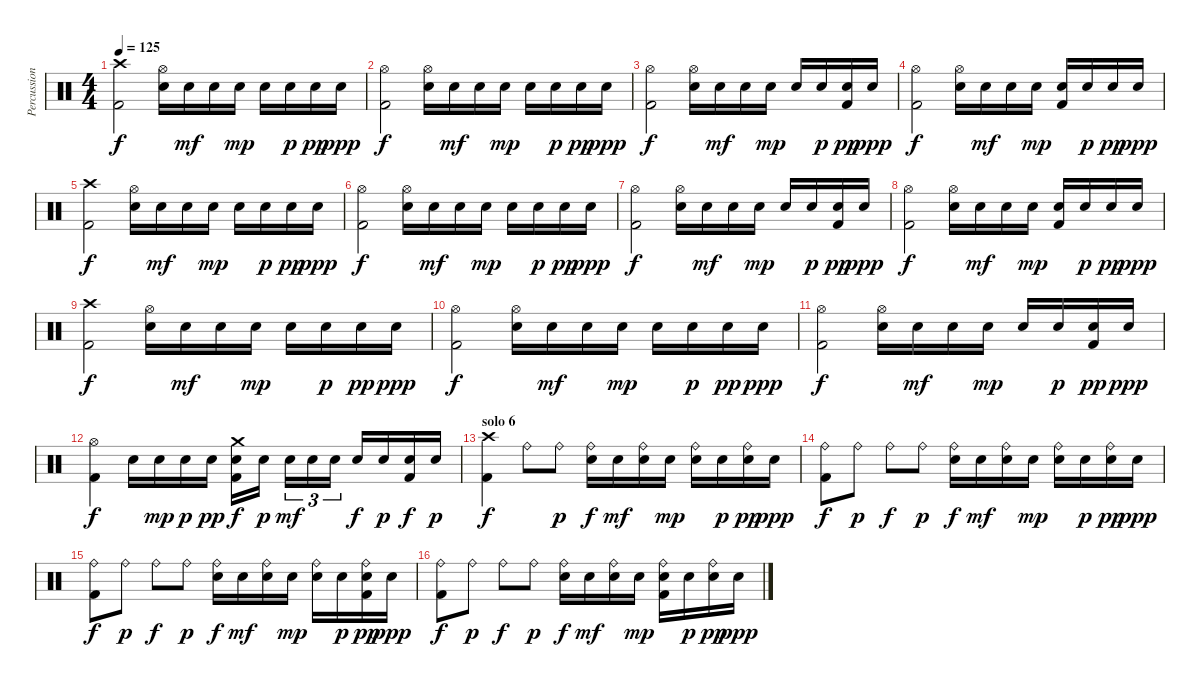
\track ("Percussion" "Percussion") {instrument percussion}
\staff {score}
\articulation defaults
\ts (4 4)
\tempo 125
\clef neutral
\ks c
("Crash high (hit)" "Kick (hit) 2").2{dy f} ("Hi-Hat (open)" "Electric Snare (hit)").16 "Electric Snare (hit)".16{dy mf} "Electric Snare (hit)".16 "Electric Snare (hit)".16{dy mp} "Electric Snare (hit)".16 "Electric Snare (hit)".16{dy p} "Electric Snare (hit)".16{dy pp} "Electric Snare (hit)".16{dy ppp} |
("Hi-Hat (open)" "Kick (hit) 2").2{dy f} ("Hi-Hat (open)" "Electric Snare (hit)").16 "Electric Snare (hit)".16{dy mf} "Electric Snare (hit)".16 "Electric Snare (hit)".16{dy mp} "Electric Snare (hit)".16 "Electric Snare (hit)".16{dy p} "Electric Snare (hit)".16{dy pp} "Electric Snare (hit)".16{dy ppp} |
("Hi-Hat (open)" "Kick (hit) 2").2{dy f} ("Hi-Hat (open)" "Electric Snare (hit)").16 "Electric Snare (hit)".16{dy mf} "Electric Snare (hit)".16 "Electric Snare (hit)".16{dy mp} "Electric Snare (hit)".16 "Electric Snare (hit)".16{dy p} ("Electric Snare (hit)" "Kick (hit) 2").16{dy pp} "Electric Snare (hit)".16{dy ppp} |
("Hi-Hat (open)" "Kick (hit) 2").2{dy f} ("Hi-Hat (open)" "Electric Snare (hit)").16 "Electric Snare (hit)".16{dy mf} "Electric Snare (hit)".16 "Electric Snare (hit)".16{dy mp} ("Electric Snare (hit)" "Kick (hit) 2").16 "Electric Snare (hit)".16{dy p} "Electric Snare (hit)".16{dy pp} "Electric Snare (hit)".16{dy ppp} |
("Crash high (hit)" "Kick (hit) 2").2{dy f} ("Hi-Hat (open)" "Electric Snare (hit)").16 "Electric Snare (hit)".16{dy mf} "Electric Snare (hit)".16 "Electric Snare (hit)".16{dy mp} "Electric Snare (hit)".16 "Electric Snare (hit)".16{dy p} "Electric Snare (hit)".16{dy pp} "Electric Snare (hit)".16{dy ppp} |
("Hi-Hat (open)" "Kick (hit) 2").2{dy f} ("Hi-Hat (open)" "Electric Snare (hit)").16 "Electric Snare (hit)".16{dy mf} "Electric Snare (hit)".16 "Electric Snare (hit)".16{dy mp} "Electric Snare (hit)".16 "Electric Snare (hit)".16{dy p} "Electric Snare (hit)".16{dy pp} "Electric Snare (hit)".16{dy ppp} |
("Hi-Hat (open)" "Kick (hit) 2").2{dy f} ("Hi-Hat (open)" "Electric Snare (hit)").16 "Electric Snare (hit)".16{dy mf} "Electric Snare (hit)".16 "Electric Snare (hit)".16{dy mp} "Electric Snare (hit)".16 "Electric Snare (hit)".16{dy p} ("Electric Snare (hit)" "Kick (hit) 2").16{dy pp} "Electric Snare (hit)".16{dy ppp} |
("Hi-Hat (open)" "Kick (hit) 2").2{dy f} ("Hi-Hat (open)" "Electric Snare (hit)").16 "Electric Snare (hit)".16{dy mf} "Electric Snare (hit)".16 "Electric Snare (hit)".16{dy mp} ("Electric Snare (hit)" "Kick (hit) 2").16 "Electric Snare (hit)".16{dy p} "Electric Snare (hit)".16{dy pp} "Electric Snare (hit)".16{dy ppp} |
("Crash high (hit)" "Kick (hit) 2").2{dy f} ("Hi-Hat (open)" "Electric Snare (hit)").16 "Electric Snare (hit)".16{dy mf} "Electric Snare (hit)".16 "Electric Snare (hit)".16{dy mp} "Electric Snare (hit)".16 "Electric Snare (hit)".16{dy p} "Electric Snare (hit)".16{dy pp} "Electric Snare (hit)".16{dy ppp} |
("Hi-Hat (open)" "Kick (hit) 2").2{dy f} ("Hi-Hat (open)" "Electric Snare (hit)").16 "Electric Snare (hit)".16{dy mf} "Electric Snare (hit)".16 "Electric Snare (hit)".16{dy mp} "Electric Snare (hit)".16 "Electric Snare (hit)".16{dy p} "Electric Snare (hit)".16{dy pp} "Electric Snare (hit)".16{dy ppp} |
("Hi-Hat (open)" "Kick (hit) 2").2{dy f} ("Hi-Hat (open)" "Electric Snare (hit)").16 "Electric Snare (hit)".16{dy mf} "Electric Snare (hit)".16 "Electric Snare (hit)".16{dy mp} "Electric Snare (hit)".16 "Electric Snare (hit)".16{dy p} ("Electric Snare (hit)" "Kick (hit) 2").16{dy pp} "Electric Snare (hit)".16{dy ppp} |
("Hi-Hat (open)" "Kick (hit) 2").4{dy f} "Electric Snare (hit)".16 "Electric Snare (hit)".16{dy mp} "Electric Snare (hit)".16{dy p} "Electric Snare (hit)".16{dy pp} ("Crash medium (hit)" "Electric Snare (hit)" "Kick (hit) 2").16{dy f} "Electric Snare (hit)".16{dy p} "Electric Snare (hit)".16{tu (3 2) dy mf} "Electric Snare (hit)".16{tu (3 2)} "Electric Snare (hit)".16{tu (3 2)} "Electric Snare (hit)".16{dy f} "Electric Snare (hit)".16{dy p} ("Electric Snare (hit)" "Kick (hit) 2").16{dy f} "Electric Snare (hit)".16{dy p} |
\section ("" "solo 6")
("Crash high (hit)" "Kick (hit) 2").4{dy f} "Ride (bell)".8 "Ride (bell)".8{dy p} ("Ride (bell)" "Electric Snare (hit)").16{dy f} "Electric Snare (hit)".16{dy mf} ("Ride (bell)" "Electric Snare (hit)").16 "Electric Snare (hit)".16{dy mp} ("Ride (bell)" "Electric Snare (hit)").16 "Electric Snare (hit)".16{dy p} ("Ride (bell)" "Electric Snare (hit)").16{dy pp} "Electric Snare (hit)".16{dy ppp} |
("Ride (bell)" "Kick (hit) 2").8{dy f} "Ride (bell)".8{dy p} "Ride (bell)".8{dy f} "Ride (bell)".8{dy p} ("Ride (bell)" "Electric Snare (hit)").16{dy f} "Electric Snare (hit)".16{dy mf} ("Ride (bell)" "Electric Snare (hit)").16 "Electric Snare (hit)".16{dy mp} ("Ride (bell)" "Electric Snare (hit)").16 "Electric Snare (hit)".16{dy p} ("Ride (bell)" "Electric Snare (hit)").16{dy pp} "Electric Snare (hit)".16{dy ppp} |
("Ride (bell)" "Kick (hit) 2").8{dy f} "Ride (bell)".8{dy p} "Ride (bell)".8{dy f} "Ride (bell)".8{dy p} ("Ride (bell)" "Electric Snare (hit)").16{dy f} "Electric Snare (hit)".16{dy mf} ("Ride (bell)" "Electric Snare (hit)").16 "Electric Snare (hit)".16{dy mp} ("Ride (bell)" "Electric Snare (hit)").16 "Electric Snare (hit)".16{dy p} ("Ride (bell)" "Electric Snare (hit)" "Kick (hit) 2").16{dy pp} "Electric Snare (hit)".16{dy ppp} |
("Ride (bell)" "Kick (hit) 2").8{dy f} "Ride (bell)".8{dy p} "Ride (bell)".8{dy f} "Ride (bell)".8{dy p} ("Ride (bell)" "Electric Snare (hit)").16{dy f} "Electric Snare (hit)".16{dy mf} ("Ride (bell)" "Electric Snare (hit)").16 "Electric Snare (hit)".16{dy mp} ("Ride (bell)" "Electric Snare (hit)" "Kick (hit) 2").16 "Electric Snare (hit)".16{dy p} ("Ride (bell)" "Electric Snare (hit)").16{dy pp} "Electric Snare (hit)".16{dy ppp}
